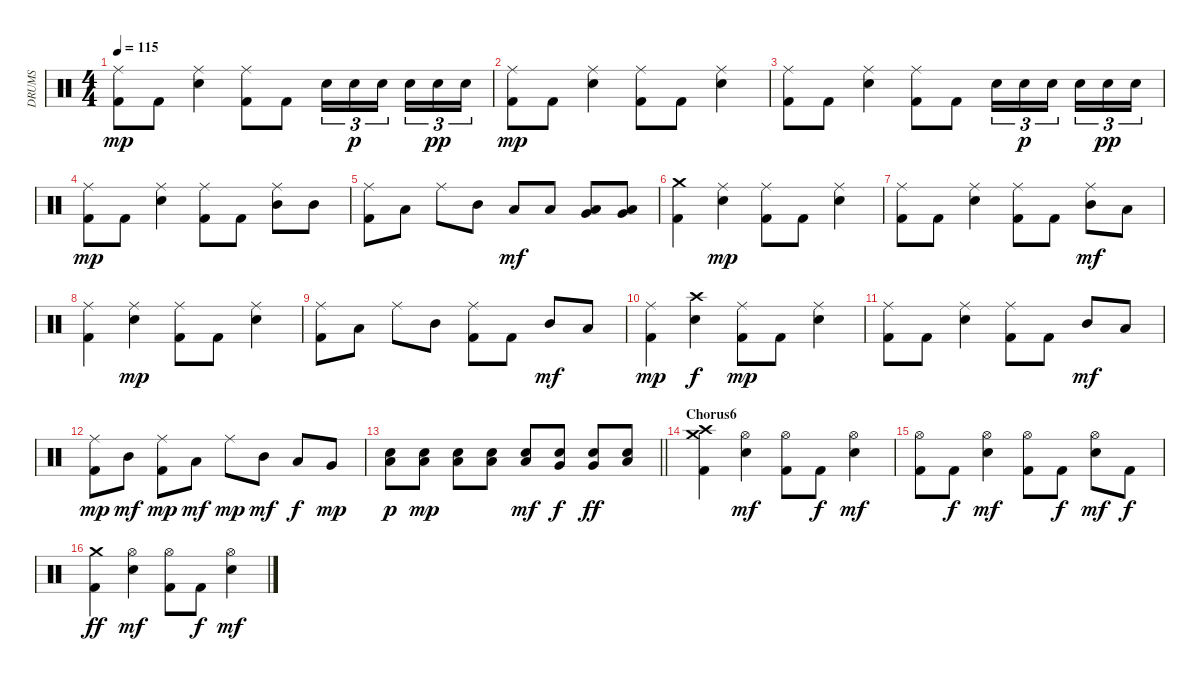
\track ("DRUMS" "DRUMS") {instrument percussion}
\staff {score}
\articulation defaults
\ts (4 4)
\tempo 115
\clef neutral
\ks c
("Ride (middle)" "Kick (hit) 2").8{dy mp} "Kick (hit) 2".8 ("Ride (middle)" "Snare (hit) 2").4 ("Ride (middle)" "Kick (hit) 2").8 "Kick (hit) 2".8 "Electric Snare (hit)".16{tu (3 2)} "Snare (hit) 2".16{tu (3 2) dy p} "Electric Snare (hit)".16{tu (3 2) beam splitsecondary} "Snare (hit) 2".16{tu (3 2)} "Electric Snare (hit)".16{tu (3 2) dy pp} "Snare (hit) 2".16{tu (3 2)} |
("Ride (middle)" "Kick (hit) 2").8{dy mp} "Kick (hit) 2".8 ("Ride (middle)" "Snare (hit) 2").4 ("Ride (middle)" "Kick (hit) 2").8 "Kick (hit) 2".8 ("Ride (middle)" "Snare (hit) 2").4 |
("Ride (middle)" "Kick (hit) 2").8 "Kick (hit) 2".8 ("Ride (middle)" "Snare (hit) 2").4 ("Ride (middle)" "Kick (hit) 2").8 "Kick (hit) 2".8 "Electric Snare (hit)".16{tu (3 2)} "Snare (hit) 2".16{tu (3 2) dy p} "Electric Snare (hit)".16{tu (3 2) beam splitsecondary} "Snare (hit) 2".16{tu (3 2)} "Electric Snare (hit)".16{tu (3 2) dy pp} "Snare (hit) 2".16{tu (3 2)} |
("Ride (middle)" "Kick (hit) 2").8{dy mp} "Kick (hit) 2".8 ("Ride (middle)" "Snare (hit) 2").4 ("Ride (middle)" "Kick (hit) 2").8 "Kick (hit) 2".8 ("Ride (middle)" "Mid Tom (hit)").8 "Mid Tom (hit)".8 |
("Ride (middle)" "Kick (hit) 2").8 "Low Tom (hit)".8 "Ride (middle)".8 "Mid Tom (hit)".8 "Low Tom (hit)".8{dy mf} "Low Tom (hit)".8 ("Low Tom (hit)" "Very Low Tom (hit)").8 ("Low Tom (hit)" "Very Low Tom (hit)").8 |
("Crash medium (hit)" "Kick (hit) 2").4 ("Ride (middle)" "Snare (hit) 2").4{dy mp} ("Ride (middle)" "Kick (hit) 2").8 "Kick (hit) 2".8 ("Ride (middle)" "Snare (hit) 2").4 |
("Ride (middle)" "Kick (hit) 2").8 "Kick (hit) 2".8 ("Ride (middle)" "Snare (hit) 2").4 ("Ride (middle)" "Kick (hit) 2").8 "Kick (hit) 2".8 ("Ride (middle)" "Mid Tom (hit)").8{dy mf} "Low Tom (hit)".8 |
("Ride (middle)" "Kick (hit) 2").4 ("Ride (middle)" "Snare (hit) 2").4{dy mp} ("Ride (middle)" "Kick (hit) 2").8 "Kick (hit) 2".8 ("Ride (middle)" "Snare (hit) 2").4 |
("Ride (middle)" "Kick (hit) 2").8 "Low Tom (hit)".8 "Ride (middle)".8 "Mid Tom (hit)".8 ("Ride (middle)" "Kick (hit) 2").8 "Kick (hit) 2".8 "Mid Tom (hit)".8{dy mf} "Low Tom (hit)".8 |
("Ride (middle)" "Kick (hit) 2").4{dy mp} ("Crash high (hit)" "Snare (hit) 2").4{dy f} ("Ride (middle)" "Kick (hit) 2").8{dy mp} "Kick (hit) 2".8 ("Ride (middle)" "Snare (hit) 2").4 |
("Ride (middle)" "Kick (hit) 2").8 "Kick (hit) 2".8 ("Ride (middle)" "Snare (hit) 2").4 ("Ride (middle)" "Kick (hit) 2").8 "Kick (hit) 2".8 "Mid Tom (hit)".8{dy mf} "Low Tom (hit)".8 |
("Ride (middle)" "Kick (hit) 2").8{dy mp} "Mid Tom (hit)".8{dy mf} ("Ride (middle)" "Kick (hit) 2").8{dy mp} "Low Tom (hit)".8{dy mf} "Ride (middle)".8{dy mp} "Mid Tom (hit)".8{dy mf} "Low Tom (hit)".8{dy f} "Very Low Tom (hit)".8{dy mp} |
\barLineRight lightlight
("Snare (hit) 2" "Low Tom (hit)").8{dy p} ("Snare (hit) 2" "Low Tom (hit)").8{dy mp} ("Snare (hit) 2" "Low Tom (hit)").8 ("Snare (hit) 2" "Low Tom (hit)").8 ("Snare (hit) 2" "Low Tom (hit)").8{dy mf} ("Snare (hit) 2" "Very Low Tom (hit)").8{dy f} ("Snare (hit) 2" "Very Low Tom (hit)").8{dy ff} ("Snare (hit) 2" "Low Floor Tom (hit)").8 |
\section ("" "Chorus6")
("Crash high (hit)" "Crash medium (hit)" "Kick (hit) 2").4 ("Hi-Hat (open)" "Snare (hit) 2").4{dy mf} ("Hi-Hat (open)" "Kick (hit) 2").8 "Kick (hit) 2".8{dy f} ("Hi-Hat (open)" "Snare (hit) 2").4{dy mf} |
("Hi-Hat (open)" "Kick (hit) 2").8 "Kick (hit) 2".8{dy f} ("Hi-Hat (open)" "Snare (hit) 2").4{dy mf} ("Hi-Hat (open)" "Kick (hit) 2").8 "Kick (hit) 2".8{dy f} ("Hi-Hat (open)" "Snare (hit) 2").8{dy mf} "Kick (hit) 2".8{dy f} |
("Crash medium (hit)" "Kick (hit) 2").4{dy ff} ("Hi-Hat (open)" "Snare (hit) 2").4{dy mf} ("Hi-Hat (open)" "Kick (hit) 2").8 "Kick (hit) 2".8{dy f} ("Hi-Hat (open)" "Snare (hit) 2").4{dy mf}
